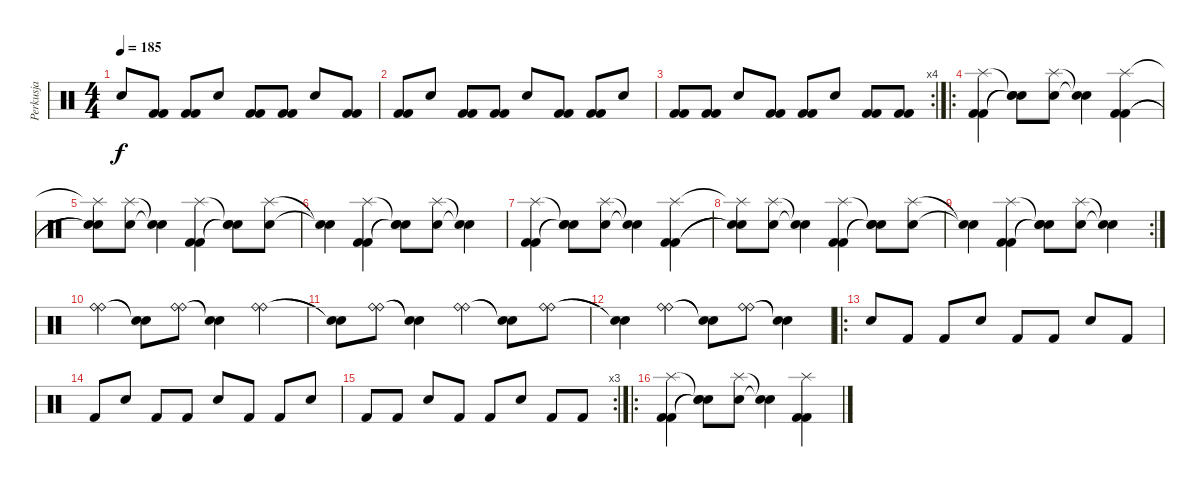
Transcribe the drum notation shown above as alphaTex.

\track ("Perkusja" "Perkusja") {instrument percussion}
\staff {score}
\articulation defaults
\ts (4 4)
\tempo 185
\clef neutral
\ks c "Snare (hit) 2".8{dy f}
("Kick (hit) 2" "Kick (hit) 2").8 ("Kick (hit) 2" "Kick (hit) 2").8 "Snare (hit) 2".8 ("Kick (hit) 2" "Kick (hit) 2").8 ("Kick (hit) 2" "Kick (hit) 2").8 "Snare (hit) 2".8 ("Kick (hit) 2" "Kick (hit) 2").8 |
("Kick (hit) 2" "Kick (hit) 2").8 "Snare (hit) 2".8 ("Kick (hit) 2" "Kick (hit) 2").8 ("Kick (hit) 2" "Kick (hit) 2").8 "Snare (hit) 2".8 ("Kick (hit) 2" "Kick (hit) 2").8 ("Kick (hit) 2" "Kick (hit) 2").8 "Snare (hit) 2".8 |
\rc 4
("Kick (hit) 2" "Kick (hit) 2").8 ("Kick (hit) 2" "Kick (hit) 2").8 "Snare (hit) 2".8 ("Kick (hit) 2" "Kick (hit) 2").8 ("Kick (hit) 2" "Kick (hit) 2").8 "Snare (hit) 2".8 ("Kick (hit) 2" "Kick (hit) 2").8 ("Kick (hit) 2" "Kick (hit) 2").8 |
\ro
("Splash (hit)" "Kick (hit) 2" "Kick (hit) 2").4 ("Snare (hit)"{t} "Snare (hit)"{t} "Snare (hit)"{t}).8 ("Splash (hit)" "Snare (hit) 2").8 ("Snare (hit)"{t} "Snare (hit)"{t}).4 ("Splash (hit)" "Kick (hit) 2" "Kick (hit) 2").4 |
("Splash (hit)"{t} "Snare (hit)"{t} "Snare (hit)"{t}).8 ("Splash (hit)" "Snare (hit) 2").8 ("Snare (hit)"{t} "Snare (hit)"{t}).4 ("Splash (hit)" "Kick (hit) 2" "Kick (hit) 2").4 ("Snare (hit)"{t} "Snare (hit)"{t} "Snare (hit)"{t}).8 ("Splash (hit)" "Snare (hit) 2").8 |
("Snare (hit)"{t} "Snare (hit)"{t}).4 ("Splash (hit)" "Kick (hit) 2" "Kick (hit) 2").4 ("Snare (hit)"{t} "Snare (hit)"{t} "Snare (hit)"{t}).8 ("Splash (hit)" "Snare (hit) 2").8 ("Snare (hit)"{t} "Snare (hit)"{t}).4 |
("Splash (hit)" "Kick (hit) 2" "Kick (hit) 2").4 ("Snare (hit)"{t} "Snare (hit)"{t} "Snare (hit)"{t}).8 ("Splash (hit)" "Snare (hit) 2").8 ("Snare (hit)"{t} "Snare (hit)"{t}).4 ("Splash (hit)" "Kick (hit) 2" "Kick (hit) 2").4 |
("Splash (hit)"{t} "Snare (hit)"{t} "Snare (hit)"{t}).8 ("Splash (hit)" "Snare (hit) 2").8 ("Snare (hit)"{t} "Snare (hit)"{t}).4 ("Splash (hit)" "Kick (hit) 2" "Kick (hit) 2").4 ("Snare (hit)"{t} "Snare (hit)"{t} "Snare (hit)"{t}).8 ("Splash (hit)" "Snare (hit) 2").8 |
\rc 2
("Snare (hit)"{t} "Snare (hit)"{t}).4 ("Splash (hit)" "Kick (hit) 2" "Kick (hit) 2").4 ("Snare (hit)"{t} "Snare (hit)"{t} "Snare (hit)"{t}).8 ("Splash (hit)" "Snare (hit) 2").8 ("Snare (hit)"{t} "Snare (hit)"{t}).4 |
("Ride (bell)" "Ride (bell)").4 ("Snare (hit)"{t} "Snare (hit)"{t}).8 ("Ride (bell)" "Ride (bell)").8 ("Snare (hit)"{t} "Snare (hit)"{t}).4 ("Ride (bell)" "Ride (bell)").4 |
("Snare (hit)"{t} "Snare (hit)"{t}).8 ("Ride (bell)" "Ride (bell)").8 ("Snare (hit)"{t} "Snare (hit)"{t}).4 ("Ride (bell)" "Ride (bell)").4 ("Snare (hit)"{t} "Snare (hit)"{t}).8 ("Ride (bell)" "Ride (bell)").8 |
("Snare (hit)"{t} "Snare (hit)"{t}).4 ("Ride (bell)" "Ride (bell)").4 ("Snare (hit)"{t} "Snare (hit)"{t}).8 ("Ride (bell)" "Ride (bell)").8 ("Snare (hit)"{t} "Snare (hit)"{t}).4 |
\ro "Snare (hit) 2".8 "Kick (hit) 2".8 "Kick (hit) 2".8 "Snare (hit) 2".8 "Kick (hit) 2".8 "Kick (hit) 2".8 "Snare (hit) 2".8 "Kick (hit) 2".8
|
"Kick (hit) 2".8 "Snare (hit) 2".8 "Kick (hit) 2".8 "Kick (hit) 2".8 "Snare (hit) 2".8 "Kick (hit) 2".8 "Kick (hit) 2".8 "Snare (hit) 2".8 |
\rc 3 "Kick (hit) 2".8 "Kick (hit) 2".8 "Snare (hit) 2".8 "Kick (hit) 2".8 "Kick (hit) 2".8 "Snare (hit) 2".8 "Kick (hit) 2".8 "Kick (hit) 2".8
|
\ro
("Splash (hit)" "Kick (hit) 2" "Kick (hit) 2").4 ("Snare (hit)"{t} "Snare (hit)"{t} "Snare (hit)"{t}).8 ("Splash (hit)" "Snare (hit) 2").8 ("Snare (hit)"{t} "Snare (hit)"{t}).4 ("Splash (hit)" "Kick (hit) 2" "Kick (hit) 2").4
